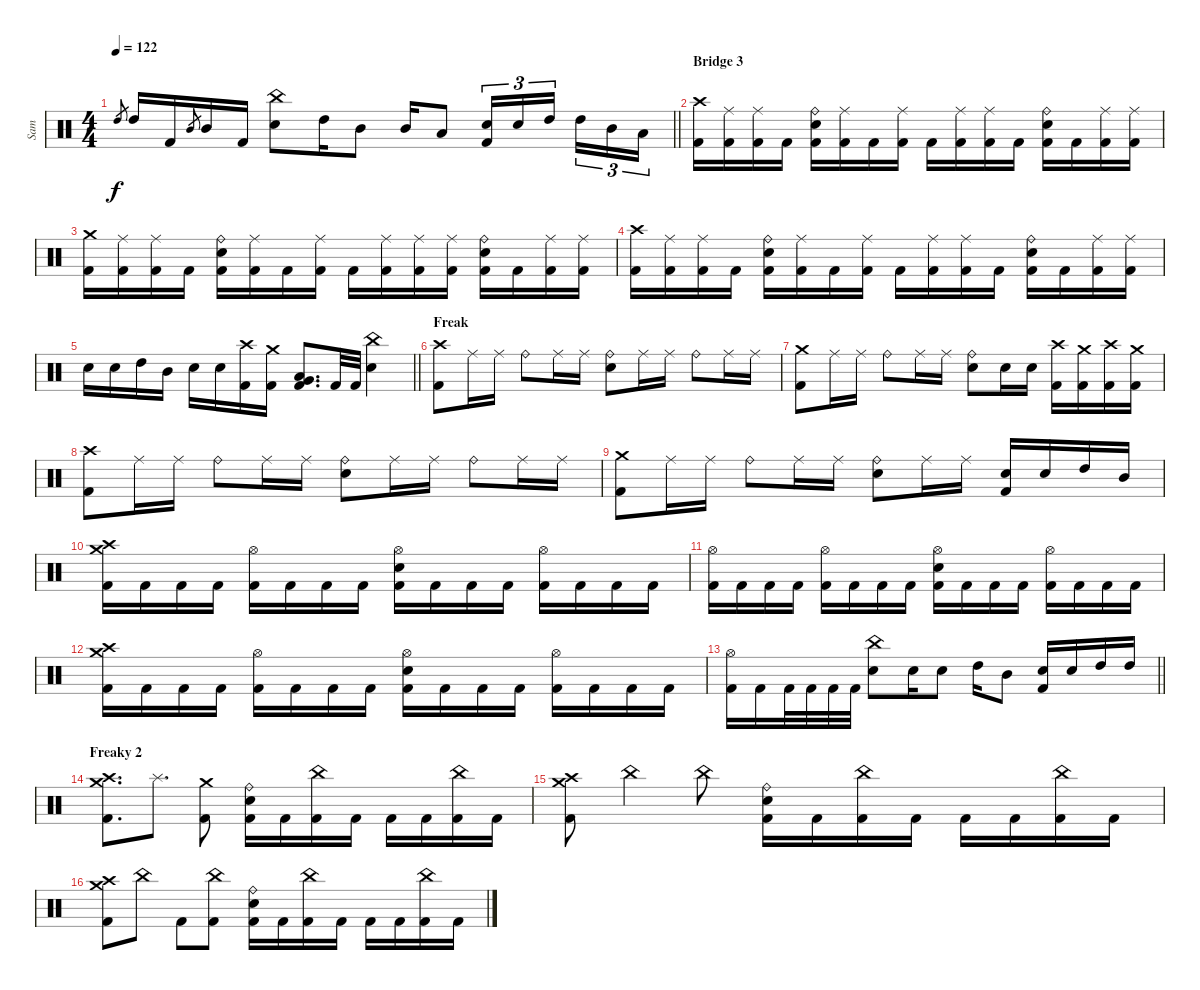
\track ("Sam" "Sam") {solo instrument percussion}
\staff {score}
\articulation defaults
\ts (4 4)
\tempo 122
\clef neutral
\barLineRight lightlight
\ks c "High Tom (hit)".8{gr dy f} "High Tom (hit)".16 "Kick (hit) 2".16 "Mid Tom (hit)".8{gr} "Mid Tom (hit)".16 "Kick (hit) 2".16
("China (hit)" "Electric Snare (hit)").8 "High Tom (hit)".16 "Mid Tom (hit)".8 "Mid Tom (hit)".16 "Low Tom (hit)".8 ("Electric Snare (hit)" "Kick (hit) 2").16{tu (3 2)} "Electric Snare (hit)".16{tu (3 2)} "High Tom (hit)".16{tu (3 2) beam splitsecondary} "High Tom (hit)".16{tu (3 2)} "Mid Tom (hit)".16{tu (3 2)} "Low Tom (hit)".16{tu (3 2)} |
\section ("" "Bridge 3")
("Crash high (hit)" "Kick (hit) 2").16 ("Ride (middle)" "Kick (hit) 2").16 ("Ride (middle)" "Kick (hit) 2").16 "Kick (hit) 2".16 ("Ride (bell)" "Electric Snare (hit)" "Kick (hit) 2").16 ("Ride (middle)" "Kick (hit) 2").16 "Kick (hit) 2".16 ("Ride (middle)" "Kick (hit) 2").16 "Kick (hit) 2".16 ("Ride (middle)" "Kick (hit) 2").16 ("Ride (middle)" "Kick (hit) 2").16 "Kick (hit) 2".16 ("Ride (bell)" "Electric Snare (hit)" "Kick (hit) 2").16 "Kick (hit) 2".16 ("Ride (middle)" "Kick (hit) 2").16 ("Ride (middle)" "Kick (hit) 2").16 |
("Crash medium (hit)" "Kick (hit) 2").16 ("Ride (middle)" "Kick (hit) 2").16 ("Ride (middle)" "Kick (hit) 2").16 "Kick (hit) 2".16 ("Ride (bell)" "Electric Snare (hit)" "Kick (hit) 2").16 ("Ride (middle)" "Kick (hit) 2").16 "Kick (hit) 2".16 ("Ride (middle)" "Kick (hit) 2").16 "Kick (hit) 2".16 ("Ride (middle)" "Kick (hit) 2").16 ("Ride (middle)" "Kick (hit) 2").16 ("Ride (middle)" "Kick (hit) 2").16 ("Ride (bell)" "Electric Snare (hit)" "Kick (hit) 2").16 "Kick (hit) 2".16 ("Ride (middle)" "Kick (hit) 2").16 ("Ride (middle)" "Kick (hit) 2").16 |
("Crash high (hit)" "Kick (hit) 2").16 ("Ride (middle)" "Kick (hit) 2").16 ("Ride (middle)" "Kick (hit) 2").16 "Kick (hit) 2".16 ("Ride (bell)" "Electric Snare (hit)" "Kick (hit) 2").16 ("Ride (middle)" "Kick (hit) 2").16 "Kick (hit) 2".16 ("Ride (middle)" "Kick (hit) 2").16 "Kick (hit) 2".16 ("Ride (middle)" "Kick (hit) 2").16 ("Ride (middle)" "Kick (hit) 2").16 "Kick (hit) 2".16 ("Ride (bell)" "Electric Snare (hit)" "Kick (hit) 2").16 "Kick (hit) 2".16 ("Ride (middle)" "Kick (hit) 2").16 ("Ride (middle)" "Kick (hit) 2").16 |
\barLineRight lightlight "Electric Snare (hit)".16 "Electric Snare (hit)".16 "High Tom (hit)".16 "Mid Tom (hit)".16 "Electric Snare (hit)".16 "Electric Snare (hit)".16
("Crash high (hit)" "Kick (hit) 2").16 ("Crash medium (hit)" "Kick (hit) 2").16 ("Very Low Tom (hit)" "Low Floor Tom (hit)" "Kick (hit) 2").8{d} "Kick (hit) 2".32 "Kick (hit) 2".32 ("China (hit)" "Electric Snare (hit)").4 |
\section ("" "Freak ")
("Crash high (hit)" "Kick (hit) 2").8 "Ride (middle)".16 "Ride (middle)".16 "Ride (bell)".8 "Ride (middle)".16 "Ride (middle)".16 ("Ride (bell)" "Electric Snare (hit)").8 "Ride (middle)".16 "Ride (middle)".16 "Ride (bell)".8 "Ride (middle)".16 "Ride (middle)".16 |
("Crash medium (hit)" "Kick (hit) 2").8 "Ride (middle)".16 "Ride (middle)".16 "Ride (bell)".8 "Ride (middle)".16 "Ride (middle)".16 ("Ride (bell)" "Electric Snare (hit)").8 "Electric Snare (hit)".16 "Electric Snare (hit)".16 ("Crash high (hit)" "Kick (hit) 2").16 ("Crash medium (hit)" "Kick (hit) 2").16 ("Crash high (hit)" "Kick (hit) 2").16 ("Crash medium (hit)" "Kick (hit) 2").16 |
("Crash high (hit)" "Kick (hit) 2").8 "Ride (middle)".16 "Ride (middle)".16 "Ride (bell)".8 "Ride (middle)".16 "Ride (middle)".16 ("Ride (bell)" "Electric Snare (hit)").8 "Ride (middle)".16 "Ride (middle)".16 "Ride (bell)".8 "Ride (middle)".16 "Ride (middle)".16 |
("Crash medium (hit)" "Kick (hit) 2").8 "Ride (middle)".16 "Ride (middle)".16 "Ride (bell)".8 "Ride (middle)".16 "Ride (middle)".16 ("Ride (bell)" "Electric Snare (hit)").8 "Ride (middle)".16 "Ride (middle)".16 ("Electric Snare (hit)" "Kick (hit) 2").16 "Electric Snare (hit)".16 "High Tom (hit)".16 "Mid Tom (hit)".16 |
("Crash high (hit)" "Crash medium (hit)" "Kick (hit) 2").16 "Kick (hit) 2".16 "Kick (hit) 2".16 "Kick (hit) 2".16 ("Hi-Hat (open)" "Kick (hit) 2").16 "Kick (hit) 2".16 "Kick (hit) 2".16 "Kick (hit) 2".16 ("Hi-Hat (open)" "Electric Snare (hit)" "Kick (hit) 2").16 "Kick (hit) 2".16 "Kick (hit) 2".16 "Kick (hit) 2".16 ("Hi-Hat (open)" "Kick (hit) 2").16 "Kick (hit) 2".16 "Kick (hit) 2".16 "Kick (hit) 2".16 |
("Hi-Hat (open)" "Kick (hit) 2").16 "Kick (hit) 2".16 "Kick (hit) 2".16 "Kick (hit) 2".16 ("Hi-Hat (open)" "Kick (hit) 2").16 "Kick (hit) 2".16 "Kick (hit) 2".16 "Kick (hit) 2".16 ("Hi-Hat (open)" "Electric Snare (hit)" "Kick (hit) 2").16 "Kick (hit) 2".16 "Kick (hit) 2".16 "Kick (hit) 2".16 ("Hi-Hat (open)" "Kick (hit) 2").16 "Kick (hit) 2".16 "Kick (hit) 2".16 "Kick (hit) 2".16 |
("Crash high (hit)" "Crash medium (hit)" "Kick (hit) 2").16 "Kick (hit) 2".16 "Kick (hit) 2".16 "Kick (hit) 2".16 ("Hi-Hat (open)" "Kick (hit) 2").16 "Kick (hit) 2".16 "Kick (hit) 2".16 "Kick (hit) 2".16 ("Hi-Hat (open)" "Electric Snare (hit)" "Kick (hit) 2").16 "Kick (hit) 2".16 "Kick (hit) 2".16 "Kick (hit) 2".16 ("Hi-Hat (open)" "Kick (hit) 2").16 "Kick (hit) 2".16 "Kick (hit) 2".16 "Kick (hit) 2".16 |
\barLineRight lightlight
("Hi-Hat (open)" "Kick (hit) 2").16 "Kick (hit) 2".16 "Kick (hit) 2".32 "Kick (hit) 2".32 "Kick (hit) 2".32 "Kick (hit) 2".32 ("China (hit)" "Electric Snare (hit)").8 "Electric Snare (hit)".16 "Electric Snare (hit)".8 "High Tom (hit)".16 "Mid Tom (hit)".8 ("Electric Snare (hit)" "Kick (hit) 2").16 "Electric Snare (hit)".16 "High Tom (hit)".16 "High Tom (hit)".16 |
\section ("" "Freaky 2")
("Crash high (hit)" "Crash medium (hit)" "Kick (hit) 2").8{d} "Splash (hit)".8{d} ("Crash medium (hit)" "Kick (hit) 2").8 ("Ride (bell)" "Electric Snare (hit)" "Kick (hit) 2").16 "Kick (hit) 2".16 ("China (hit)" "Kick (hit) 2").16 "Kick (hit) 2".16 "Kick (hit) 2".16 "Kick (hit) 2".16 ("China (hit)" "Kick (hit) 2").16 "Kick (hit) 2".16 |
("Crash high (hit)" "Crash medium (hit)" "Kick (hit) 2").8 "China (hit)".4 "China (hit)".8 ("Ride (bell)" "Electric Snare (hit)" "Kick (hit) 2").16 "Kick (hit) 2".16 ("China (hit)" "Kick (hit) 2").16 "Kick (hit) 2".16 "Kick (hit) 2".16 "Kick (hit) 2".16 ("China (hit)" "Kick (hit) 2").16 "Kick (hit) 2".16 |
("Crash high (hit)" "Crash medium (hit)" "Kick (hit) 2").8 "China (hit)".8 "Kick (hit) 2".8 ("China (hit)" "Kick (hit) 2").8 ("Ride (bell)" "Electric Snare (hit)" "Kick (hit) 2").16 "Kick (hit) 2".16 ("China (hit)" "Kick (hit) 2").16 "Kick (hit) 2".16 "Kick (hit) 2".16 "Kick (hit) 2".16 ("China (hit)" "Kick (hit) 2").16 "Kick (hit) 2".16
